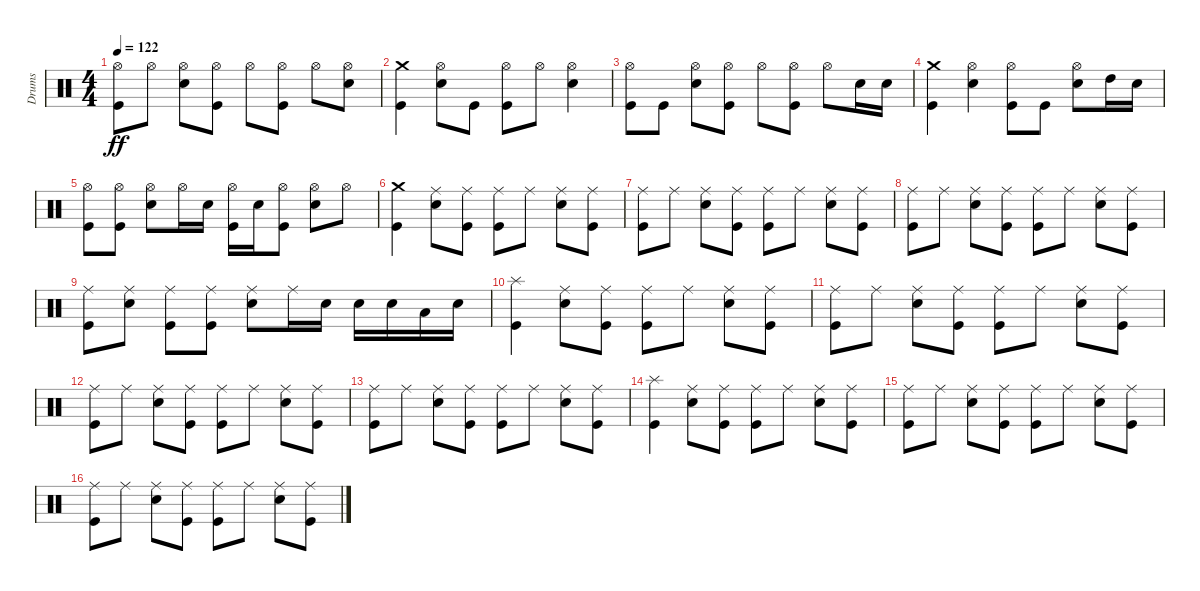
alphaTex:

\track ("Drums" "Drums") {instrument percussion}
\staff {score}
\articulation defaults
\ts (4 4)
\tempo 122
\clef neutral
\ks c
("Hi-Hat (open)" "Kick (hit)").8{dy ff} "Hi-Hat (open)".8 ("Hi-Hat (open)" "Snare (hit) 2").8 ("Hi-Hat (open)" "Kick (hit)").8 "Hi-Hat (open)".8 ("Hi-Hat (open)" "Kick (hit)").8 "Hi-Hat (open)".8 ("Hi-Hat (open)" "Snare (hit) 2").8 |
("Crash medium (hit)" "Kick (hit)").4 ("Hi-Hat (open)" "Snare (hit) 2").8 "Kick (hit)".8 ("Hi-Hat (open)" "Kick (hit)").8 "Hi-Hat (open)".8 ("Hi-Hat (open)" "Snare (hit) 2").4 |
("Hi-Hat (open)" "Kick (hit)").8 "Kick (hit)".8 ("Hi-Hat (open)" "Snare (hit) 2").8 ("Hi-Hat (open)" "Kick (hit)").8 "Hi-Hat (open)".8 ("Hi-Hat (open)" "Kick (hit)").8 "Hi-Hat (open)".8 "Snare (hit) 2".16 "Snare (hit) 2".16 |
("Crash medium (hit)" "Kick (hit)").4 ("Hi-Hat (open)" "Snare (hit) 2").4 ("Hi-Hat (open)" "Kick (hit)").8 "Kick (hit)".8 ("Hi-Hat (open)" "Snare (hit) 2").8 "High Tom (hit)".16 "Snare (hit) 2".16 |
("Hi-Hat (open)" "Kick (hit)").8 ("Hi-Hat (open)" "Kick (hit)").8 ("Hi-Hat (open)" "Snare (hit) 2").8 "Hi-Hat (open)".16 "Snare (hit) 2".16 ("Hi-Hat (open)" "Kick (hit)").16 "Snare (hit) 2".16 ("Hi-Hat (open)" "Kick (hit)").8 ("Hi-Hat (open)" "Snare (hit) 2").8 "Hi-Hat (open)".8 |
("Crash medium (hit)" "Kick (hit)").4 ("Ride (middle)" "Snare (hit) 2").8 ("Ride (middle)" "Kick (hit)").8 ("Ride (middle)" "Kick (hit)").8 "Ride (middle)".8 ("Ride (middle)" "Snare (hit) 2").8 ("Ride (middle)" "Kick (hit)").8 |
("Ride (middle)" "Kick (hit)").8 "Ride (middle)".8 ("Ride (middle)" "Snare (hit) 2").8 ("Ride (middle)" "Kick (hit)").8 ("Ride (middle)" "Kick (hit)").8 "Ride (middle)".8 ("Ride (middle)" "Snare (hit) 2").8 ("Ride (middle)" "Kick (hit)").8 |
("Ride (middle)" "Kick (hit)").8 "Ride (middle)".8 ("Ride (middle)" "Snare (hit) 2").8 ("Ride (middle)" "Kick (hit)").8 ("Ride (middle)" "Kick (hit)").8 "Ride (middle)".8 ("Ride (middle)" "Snare (hit) 2").8 ("Ride (middle)" "Kick (hit)").8 |
("Ride (middle)" "Kick (hit)").8 ("Ride (middle)" "Snare (hit) 2").8 ("Ride (middle)" "Kick (hit)").8 ("Ride (middle)" "Kick (hit)").8 ("Ride (middle)" "Snare (hit) 2").8 "Ride (middle)".16 "Snare (hit) 2".16 "Snare (hit) 2".16 "Snare (hit) 2".16 "Low Floor Tom (hit)".16 "Snare (hit) 2".16 |
("Splash (hit)" "Kick (hit)").4 ("Ride (middle)" "Snare (hit) 2").8 ("Ride (middle)" "Kick (hit)").8 ("Ride (middle)" "Kick (hit)").8 "Ride (middle)".8 ("Ride (middle)" "Snare (hit) 2").8 ("Ride (middle)" "Kick (hit)").8 |
("Ride (middle)" "Kick (hit)").8 "Ride (middle)".8 ("Ride (middle)" "Snare (hit) 2").8 ("Ride (middle)" "Kick (hit)").8 ("Ride (middle)" "Kick (hit)").8 "Ride (middle)".8 ("Ride (middle)" "Snare (hit) 2").8 ("Ride (middle)" "Kick (hit)").8 |
("Ride (middle)" "Kick (hit)").8 "Ride (middle)".8 ("Ride (middle)" "Snare (hit) 2").8 ("Ride (middle)" "Kick (hit)").8 ("Ride (middle)" "Kick (hit)").8 "Ride (middle)".8 ("Ride (middle)" "Snare (hit) 2").8 ("Ride (middle)" "Kick (hit)").8 |
("Ride (middle)" "Kick (hit)").8 "Ride (middle)".8 ("Ride (middle)" "Snare (hit) 2").8 ("Ride (middle)" "Kick (hit)").8 ("Ride (middle)" "Kick (hit)").8 "Ride (middle)".8 ("Ride (middle)" "Snare (hit) 2").8 ("Ride (middle)" "Kick (hit)").8 |
("Splash (hit)" "Kick (hit)").4 ("Ride (middle)" "Snare (hit) 2").8 ("Ride (middle)" "Kick (hit)").8 ("Ride (middle)" "Kick (hit)").8 "Ride (middle)".8 ("Ride (middle)" "Snare (hit) 2").8 ("Ride (middle)" "Kick (hit)").8 |
("Ride (middle)" "Kick (hit)").8 "Ride (middle)".8 ("Ride (middle)" "Snare (hit) 2").8 ("Ride (middle)" "Kick (hit)").8 ("Ride (middle)" "Kick (hit)").8 "Ride (middle)".8 ("Ride (middle)" "Snare (hit) 2").8 ("Ride (middle)" "Kick (hit)").8 |
("Ride (middle)" "Kick (hit)").8 "Ride (middle)".8 ("Ride (middle)" "Snare (hit) 2").8 ("Ride (middle)" "Kick (hit)").8 ("Ride (middle)" "Kick (hit)").8 "Ride (middle)".8 ("Ride (middle)" "Snare (hit) 2").8 ("Ride (middle)" "Kick (hit)").8
